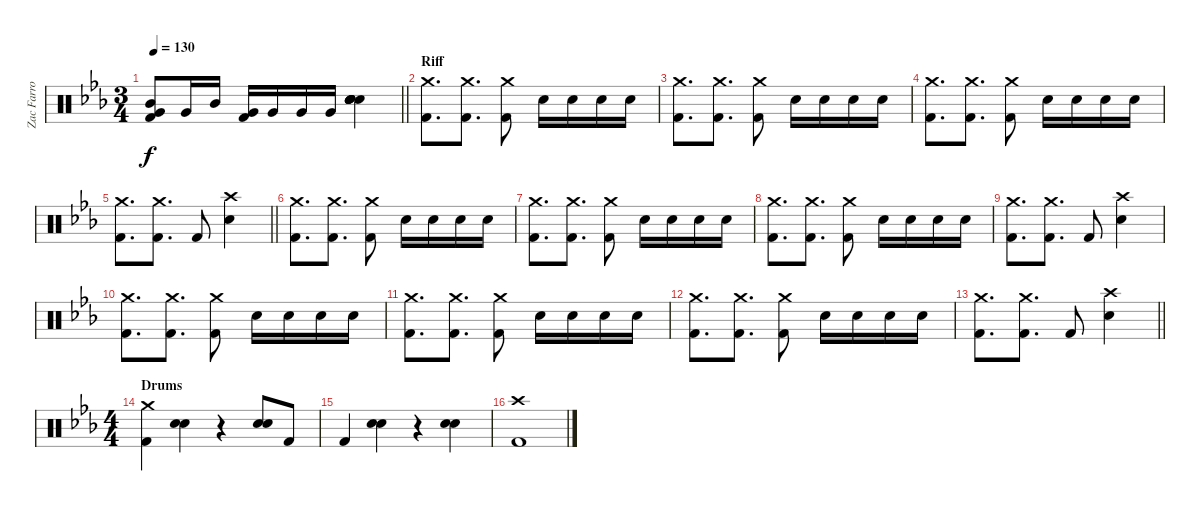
\track ("Zac Farro (Drums)" "Zac Farro ") {instrument percussion}
\staff {score}
\articulation defaults
\ts (3 4)
\tempo 130
\clef neutral
\barLineRight lightlight
\ks eb
("Kick (hit) 2" "Very Low Tom (hit)" "Mid Tom (hit)").8{dy f} "Very Low Tom (hit)".16 "Mid Tom (hit)".16 ("Kick (hit) 2" "Very Low Tom (hit)").16 "Very Low Tom (hit)".16 "Very Low Tom (hit)".16 "Very Low Tom (hit)".16 ("Electric Snare (hit)" "Electric Snare (hit)" "Electric Snare (hit)" "Snare (hit) 2" "Snare (hit) 2").4 |
\section ("" "Riff")
("Crash medium (hit)" "Kick (hit) 2").8{d} ("Crash medium (hit)" "Kick (hit) 2").8{d} ("Crash medium (hit)" "Kick (hit) 2").8 "Electric Snare (hit)".16 "Electric Snare (hit)".16 "Electric Snare (hit)".16 "Electric Snare (hit)".16 |
("Crash medium (hit)" "Kick (hit) 2").8{d} ("Crash medium (hit)" "Kick (hit) 2").8{d} ("Crash medium (hit)" "Kick (hit) 2").8 "Electric Snare (hit)".16 "Electric Snare (hit)".16 "Electric Snare (hit)".16 "Electric Snare (hit)".16 |
("Crash medium (hit)" "Kick (hit) 2").8{d} ("Crash medium (hit)" "Kick (hit) 2").8{d} ("Crash medium (hit)" "Kick (hit) 2").8 "Electric Snare (hit)".16 "Electric Snare (hit)".16 "Electric Snare (hit)".16 "Electric Snare (hit)".16 |
\barLineRight lightlight
("Crash medium (hit)" "Kick (hit) 2").8{d} ("Crash medium (hit)" "Kick (hit) 2").8{d} "Kick (hit) 2".8 ("Crash high (hit)" "Electric Snare (hit)").4 |
("Crash medium (hit)" "Kick (hit) 2").8{d} ("Crash medium (hit)" "Kick (hit) 2").8{d} ("Crash medium (hit)" "Kick (hit) 2").8 "Electric Snare (hit)".16 "Electric Snare (hit)".16 "Electric Snare (hit)".16 "Electric Snare (hit)".16 |
("Crash medium (hit)" "Kick (hit) 2").8{d} ("Crash medium (hit)" "Kick (hit) 2").8{d} ("Crash medium (hit)" "Kick (hit) 2").8 "Electric Snare (hit)".16 "Electric Snare (hit)".16 "Electric Snare (hit)".16 "Electric Snare (hit)".16 |
("Crash medium (hit)" "Kick (hit) 2").8{d} ("Crash medium (hit)" "Kick (hit) 2").8{d} ("Crash medium (hit)" "Kick (hit) 2").8 "Electric Snare (hit)".16 "Electric Snare (hit)".16 "Electric Snare (hit)".16 "Electric Snare (hit)".16 |
("Crash medium (hit)" "Kick (hit) 2").8{d} ("Crash medium (hit)" "Kick (hit) 2").8{d} "Kick (hit) 2".8 ("Crash high (hit)" "Electric Snare (hit)").4 |
("Crash medium (hit)" "Kick (hit) 2").8{d} ("Crash medium (hit)" "Kick (hit) 2").8{d} ("Crash medium (hit)" "Kick (hit) 2").8 "Electric Snare (hit)".16 "Electric Snare (hit)".16 "Electric Snare (hit)".16 "Electric Snare (hit)".16 |
("Crash medium (hit)" "Kick (hit) 2").8{d} ("Crash medium (hit)" "Kick (hit) 2").8{d} ("Crash medium (hit)" "Kick (hit) 2").8 "Electric Snare (hit)".16 "Electric Snare (hit)".16 "Electric Snare (hit)".16 "Electric Snare (hit)".16 |
("Crash medium (hit)" "Kick (hit) 2").8{d} ("Crash medium (hit)" "Kick (hit) 2").8{d} ("Crash medium (hit)" "Kick (hit) 2").8 "Electric Snare (hit)".16 "Electric Snare (hit)".16 "Electric Snare (hit)".16 "Electric Snare (hit)".16 |
\barLineRight lightlight
("Crash medium (hit)" "Kick (hit) 2").8{d} ("Crash medium (hit)" "Kick (hit) 2").8{d} "Kick (hit) 2".8 ("Crash high (hit)" "Electric Snare (hit)").4 |
\ts (4 4)
\section ("" "Drums")
("Crash medium (hit)" "Kick (hit) 2").4 ("Electric Snare (hit)" "Electric Snare (hit)").4 r.4 ("Electric Snare (hit)" "Electric Snare (hit)").8 "Kick (hit) 2".8 |
"Kick (hit) 2".4 ("Electric Snare (hit)" "Electric Snare (hit)").4 r.4 ("Electric Snare (hit)" "Electric Snare (hit)").4 |
("Crash high (hit)" "Kick (hit) 2").1
